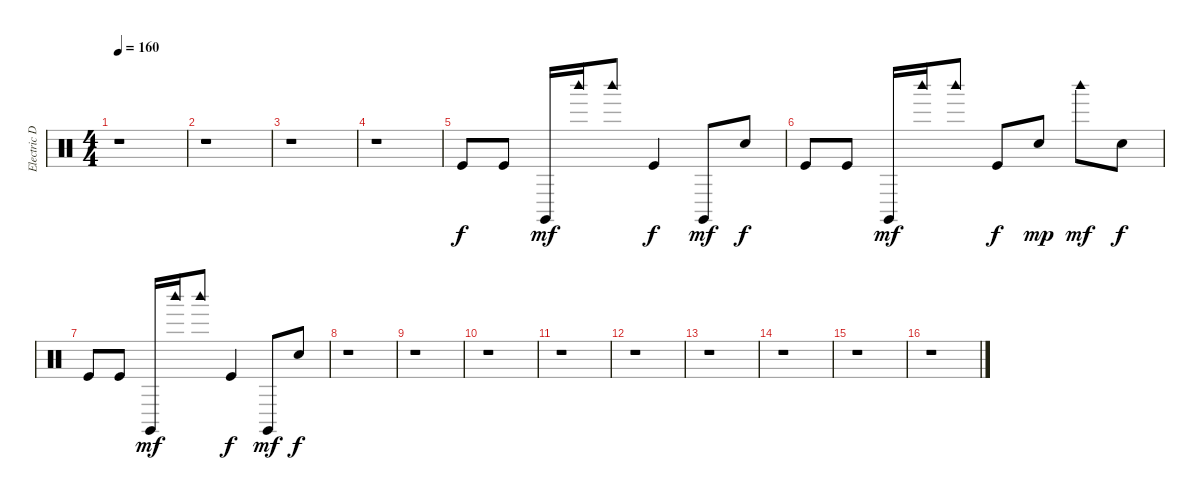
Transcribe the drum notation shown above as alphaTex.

\track ("Electric Drums" "Electric D") {instrument percussion}
\staff {score}
\articulation defaults
\ts (4 4)
\tempo 160
\clef neutral
\ks c
r.1{dy f} |
r.1 |
r.1 |
r.1 |
"Kick (hit)".8{volume 10} "Kick (hit)".8 "Claves (hit)".16{dy mf} "Woodblock high (hit)".16 "Woodblock high (hit)".8 "Kick (hit)".4{dy f} "Claves (hit)".8{dy mf} "Electric Snare (hit)".8{dy f} |
"Kick (hit)".8 "Kick (hit)".8 "Claves (hit)".16{dy mf} "Woodblock high (hit)".16 "Woodblock high (hit)".8 "Kick (hit)".8{dy f} "Electric Snare (hit)".8{dy mp} "Woodblock high (hit)".8{dy mf} "Electric Snare (hit)".8{dy f} |
"Kick (hit)".8 "Kick (hit)".8 "Claves (hit)".16{dy mf} "Woodblock high (hit)".16 "Woodblock high (hit)".8 "Kick (hit)".4{dy f} "Claves (hit)".8{dy mf} "Electric Snare (hit)".8{dy f} |
r.1 |
r.1 |
r.1 |
r.1 |
r.1 |
r.1 |
r.1 |
r.1 |
r.1
